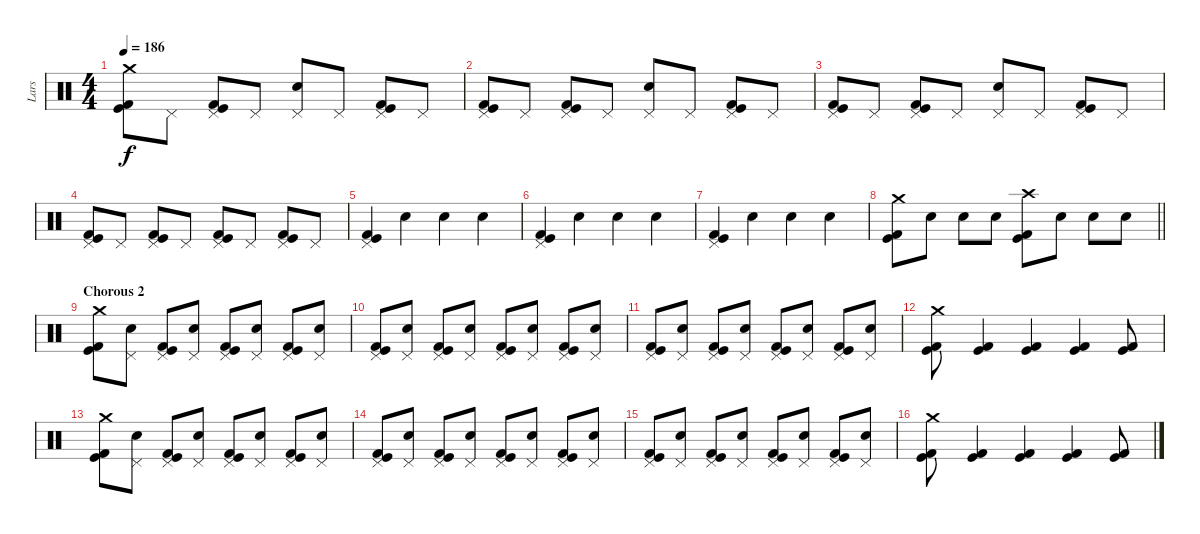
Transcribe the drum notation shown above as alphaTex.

\track ("Lars" "Lars") {instrument percussion}
\staff {score}
\articulation defaults
\ts (4 4)
\tempo 186
\clef neutral
\ks c
("Crash medium (hit)" "Kick (hit)" "Kick (hit) 2").8{dy f} "Pedal Hi-Hat (hit)".8 ("Pedal Hi-Hat (hit)" "Kick (hit)" "Kick (hit) 2").8 "Pedal Hi-Hat (hit)".8 ("Pedal Hi-Hat (hit)" "Electric Snare (hit)").8 "Pedal Hi-Hat (hit)".8 ("Pedal Hi-Hat (hit)" "Kick (hit)" "Kick (hit) 2").8 "Pedal Hi-Hat (hit)".8 |
("Pedal Hi-Hat (hit)" "Kick (hit)" "Kick (hit) 2").8 "Pedal Hi-Hat (hit)".8 ("Pedal Hi-Hat (hit)" "Kick (hit)" "Kick (hit) 2").8 "Pedal Hi-Hat (hit)".8 ("Pedal Hi-Hat (hit)" "Electric Snare (hit)").8 "Pedal Hi-Hat (hit)".8 ("Pedal Hi-Hat (hit)" "Kick (hit)" "Kick (hit) 2").8 "Pedal Hi-Hat (hit)".8 |
("Pedal Hi-Hat (hit)" "Kick (hit)" "Kick (hit) 2").8 "Pedal Hi-Hat (hit)".8 ("Pedal Hi-Hat (hit)" "Kick (hit)" "Kick (hit) 2").8 "Pedal Hi-Hat (hit)".8 ("Pedal Hi-Hat (hit)" "Electric Snare (hit)").8 "Pedal Hi-Hat (hit)".8 ("Pedal Hi-Hat (hit)" "Kick (hit)" "Kick (hit) 2").8 "Pedal Hi-Hat (hit)".8 |
("Pedal Hi-Hat (hit)" "Kick (hit)" "Kick (hit) 2").8 "Pedal Hi-Hat (hit)".8 ("Pedal Hi-Hat (hit)" "Kick (hit)" "Kick (hit) 2").8 "Pedal Hi-Hat (hit)".8 ("Pedal Hi-Hat (hit)" "Kick (hit)" "Kick (hit) 2").8 "Pedal Hi-Hat (hit)".8 ("Pedal Hi-Hat (hit)" "Kick (hit)" "Kick (hit) 2").8 "Pedal Hi-Hat (hit)".8 |
("Pedal Hi-Hat (hit)" "Kick (hit)" "Kick (hit) 2").4 "Electric Snare (hit)".4 "Electric Snare (hit)".4 "Electric Snare (hit)".4 |
("Pedal Hi-Hat (hit)" "Kick (hit)" "Kick (hit) 2").4 "Electric Snare (hit)".4 "Electric Snare (hit)".4 "Electric Snare (hit)".4 |
("Pedal Hi-Hat (hit)" "Kick (hit)" "Kick (hit) 2").4 "Electric Snare (hit)".4 "Electric Snare (hit)".4 "Electric Snare (hit)".4 |
\barLineRight lightlight
("Crash medium (hit)" "Kick (hit)" "Kick (hit) 2").8 "Electric Snare (hit)".8 "Electric Snare (hit)".8 "Electric Snare (hit)".8 ("Crash high (hit)" "Kick (hit)" "Kick (hit) 2").8 "Electric Snare (hit)".8 "Electric Snare (hit)".8 "Electric Snare (hit)".8 |
\section ("" "Chorous 2")
("Crash medium (hit)" "Kick (hit)" "Kick (hit) 2").8 ("Pedal Hi-Hat (hit)" "Electric Snare (hit)").8 ("Pedal Hi-Hat (hit)" "Kick (hit)" "Kick (hit) 2").8 ("Pedal Hi-Hat (hit)" "Electric Snare (hit)").8 ("Pedal Hi-Hat (hit)" "Kick (hit)" "Kick (hit) 2").8 ("Pedal Hi-Hat (hit)" "Electric Snare (hit)").8 ("Pedal Hi-Hat (hit)" "Kick (hit)" "Kick (hit) 2").8 ("Pedal Hi-Hat (hit)" "Electric Snare (hit)").8 |
("Pedal Hi-Hat (hit)" "Kick (hit)" "Kick (hit) 2").8 ("Pedal Hi-Hat (hit)" "Electric Snare (hit)").8 ("Pedal Hi-Hat (hit)" "Kick (hit)" "Kick (hit) 2").8 ("Pedal Hi-Hat (hit)" "Electric Snare (hit)").8 ("Pedal Hi-Hat (hit)" "Kick (hit)" "Kick (hit) 2").8 ("Pedal Hi-Hat (hit)" "Electric Snare (hit)").8 ("Pedal Hi-Hat (hit)" "Kick (hit)" "Kick (hit) 2").8 ("Pedal Hi-Hat (hit)" "Electric Snare (hit)").8 |
("Pedal Hi-Hat (hit)" "Kick (hit)" "Kick (hit) 2").8 ("Pedal Hi-Hat (hit)" "Electric Snare (hit)").8 ("Pedal Hi-Hat (hit)" "Kick (hit)" "Kick (hit) 2").8 ("Pedal Hi-Hat (hit)" "Electric Snare (hit)").8 ("Pedal Hi-Hat (hit)" "Kick (hit)" "Kick (hit) 2").8 ("Pedal Hi-Hat (hit)" "Electric Snare (hit)").8 ("Pedal Hi-Hat (hit)" "Kick (hit)" "Kick (hit) 2").8 ("Pedal Hi-Hat (hit)" "Electric Snare (hit)").8 |
("Crash medium (hit)" "Kick (hit)" "Kick (hit) 2").8 ("Kick (hit)" "Kick (hit) 2").4 ("Kick (hit)" "Kick (hit) 2").4 ("Kick (hit)" "Kick (hit) 2").4 ("Kick (hit)" "Kick (hit) 2").8 |
("Crash medium (hit)" "Kick (hit)" "Kick (hit) 2").8 ("Pedal Hi-Hat (hit)" "Electric Snare (hit)").8 ("Pedal Hi-Hat (hit)" "Kick (hit)" "Kick (hit) 2").8 ("Pedal Hi-Hat (hit)" "Electric Snare (hit)").8 ("Pedal Hi-Hat (hit)" "Kick (hit)" "Kick (hit) 2").8 ("Pedal Hi-Hat (hit)" "Electric Snare (hit)").8 ("Pedal Hi-Hat (hit)" "Kick (hit)" "Kick (hit) 2").8 ("Pedal Hi-Hat (hit)" "Electric Snare (hit)").8 |
("Pedal Hi-Hat (hit)" "Kick (hit)" "Kick (hit) 2").8 ("Pedal Hi-Hat (hit)" "Electric Snare (hit)").8 ("Pedal Hi-Hat (hit)" "Kick (hit)" "Kick (hit) 2").8 ("Pedal Hi-Hat (hit)" "Electric Snare (hit)").8 ("Pedal Hi-Hat (hit)" "Kick (hit)" "Kick (hit) 2").8 ("Pedal Hi-Hat (hit)" "Electric Snare (hit)").8 ("Pedal Hi-Hat (hit)" "Kick (hit)" "Kick (hit) 2").8 ("Pedal Hi-Hat (hit)" "Electric Snare (hit)").8 |
("Pedal Hi-Hat (hit)" "Kick (hit)" "Kick (hit) 2").8 ("Pedal Hi-Hat (hit)" "Electric Snare (hit)").8 ("Pedal Hi-Hat (hit)" "Kick (hit)" "Kick (hit) 2").8 ("Pedal Hi-Hat (hit)" "Electric Snare (hit)").8 ("Pedal Hi-Hat (hit)" "Kick (hit)" "Kick (hit) 2").8 ("Pedal Hi-Hat (hit)" "Electric Snare (hit)").8 ("Pedal Hi-Hat (hit)" "Kick (hit)" "Kick (hit) 2").8 ("Pedal Hi-Hat (hit)" "Electric Snare (hit)").8 |
("Crash medium (hit)" "Kick (hit)" "Kick (hit) 2").8 ("Kick (hit)" "Kick (hit) 2").4 ("Kick (hit)" "Kick (hit) 2").4 ("Kick (hit)" "Kick (hit) 2").4 ("Kick (hit)" "Kick (hit) 2").8
